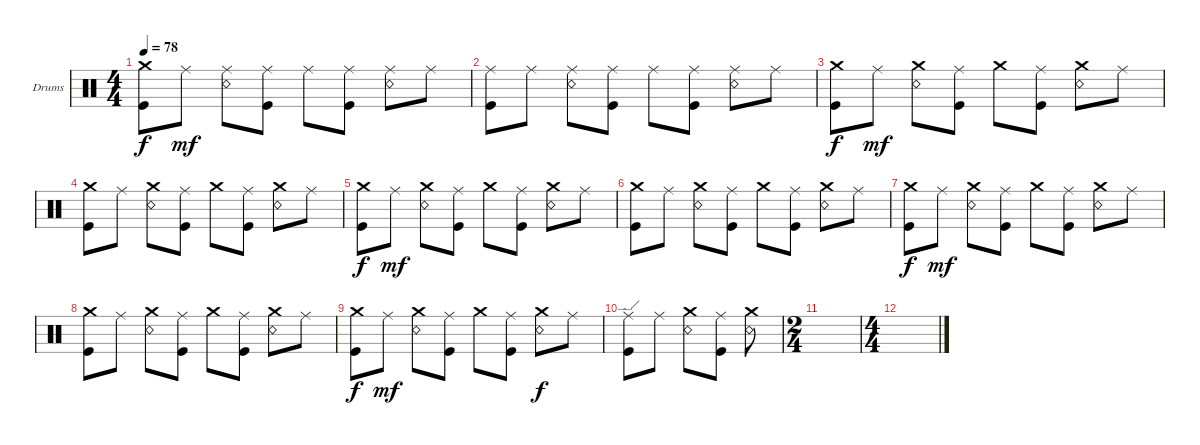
\defaultSystemsLayout 4
\bracketExtendMode groupsimilarinstruments
\firstSystemTrackNameOrientation horizontal
\otherSystemsTrackNameOrientation horizontal
\track ("Drumkit" "Drums") {instrument percussion}
\staff {score}
\articulation defaults
\ts (4 4)
\tempo 78
\clef neutral
\scale
0.333333
\ks c
("Kick (hit)" "Crash medium (hit)").8{dy f} "Ride (middle)".8{dy mf} ("Snare (rim shot)" "Ride (middle)").8 ("Kick (hit)" "Ride (middle)").8 "Ride (middle)".8 ("Kick (hit)" "Ride (middle)").8 ("Snare (rim shot)" "Ride (middle)").8 "Ride (middle)".8 |
\scale
0.333333 ("Kick (hit)" "Ride (middle)").8 "Ride (middle)".8 ("Snare (rim shot)" "Ride (middle)").8 ("Kick (hit)" "Ride (middle)").8 "Ride (middle)".8 ("Kick (hit)" "Ride (middle)").8 ("Snare (rim shot)" "Ride (middle)").8 "Ride (middle)".8 |
\scale
0.333333 ("Kick (hit)" "Crash medium (hit)").8{dy f} "Ride (middle)".8{dy mf} ("Snare (rim shot)" "Crash medium (hit)").8 ("Kick (hit)" "Ride (middle)").8 "Crash medium (hit)".8 ("Kick (hit)" "Ride (middle)").8 ("Snare (rim shot)" "Crash medium (hit)").8 "Ride (middle)".8 |
\scale
0.333333 ("Kick (hit)" "Crash medium (hit)").8 "Ride (middle)".8 ("Snare (rim shot)" "Crash medium (hit)").8 ("Kick (hit)" "Ride (middle)").8 "Crash medium (hit)".8 ("Kick (hit)" "Ride (middle)").8 ("Snare (rim shot)" "Crash medium (hit)").8 "Ride (middle)".8 |
\scale
0.333333 ("Kick (hit)" "Crash medium (hit)").8{dy f} "Ride (middle)".8{dy mf} ("Snare (rim shot)" "Crash medium (hit)").8 ("Kick (hit)" "Ride (middle)").8 "Crash medium (hit)".8 ("Kick (hit)" "Ride (middle)").8 ("Snare (rim shot)" "Crash medium (hit)").8 "Ride (middle)".8 |
\scale
0.333333 ("Kick (hit)" "Crash medium (hit)").8 "Ride (middle)".8 ("Snare (rim shot)" "Crash medium (hit)").8 ("Kick (hit)" "Ride (middle)").8 "Crash medium (hit)".8 ("Kick (hit)" "Ride (middle)").8 ("Snare (rim shot)" "Crash medium (hit)").8 "Ride (middle)".8 |
\scale
0.333333 ("Kick (hit)" "Crash medium (hit)").8{dy f} "Ride (middle)".8{dy mf} ("Snare (rim shot)" "Crash medium (hit)").8 ("Kick (hit)" "Ride (middle)").8 "Crash medium (hit)".8 ("Kick (hit)" "Ride (middle)").8 ("Snare (rim shot)" "Crash medium (hit)").8 "Ride (middle)".8 |
\scale
0.333333 ("Kick (hit)" "Crash medium (hit)").8 "Ride (middle)".8 ("Snare (rim shot)" "Crash medium (hit)").8 ("Kick (hit)" "Ride (middle)").8 "Crash medium (hit)".8 ("Kick (hit)" "Ride (middle)").8 ("Snare (rim shot)" "Crash medium (hit)").8 "Ride (middle)".8 |
\scale
0.333333 ("Kick (hit)" "Crash medium (hit)").8{dy f} "Ride (middle)".8{dy mf} ("Snare (rim shot)" "Crash medium (hit)").8 ("Kick (hit)" "Ride (middle)").8 "Crash medium (hit)".8 ("Kick (hit)" "Ride (middle)").8 ("Snare (rim shot)" "Crash medium (hit)").8{dy f} "Ride (middle)".8 |
\scale
0.333333 ("Kick (hit)" "Ride (edge)").8 "Ride (middle)".8 ("Snare (rim shot)" "Crash medium (hit)").8 ("Kick (hit)" "Ride (middle)").8 ("Snare (rim shot)" "Crash medium (hit)").8 |
\ts (2 4)
\scale
0.333333 |
\ts (4 4)
\scale
0.333333 |
\scale
0.333333 |
\scale
0.333333 |
\scale
0.333333 |
\scale
0.333333
